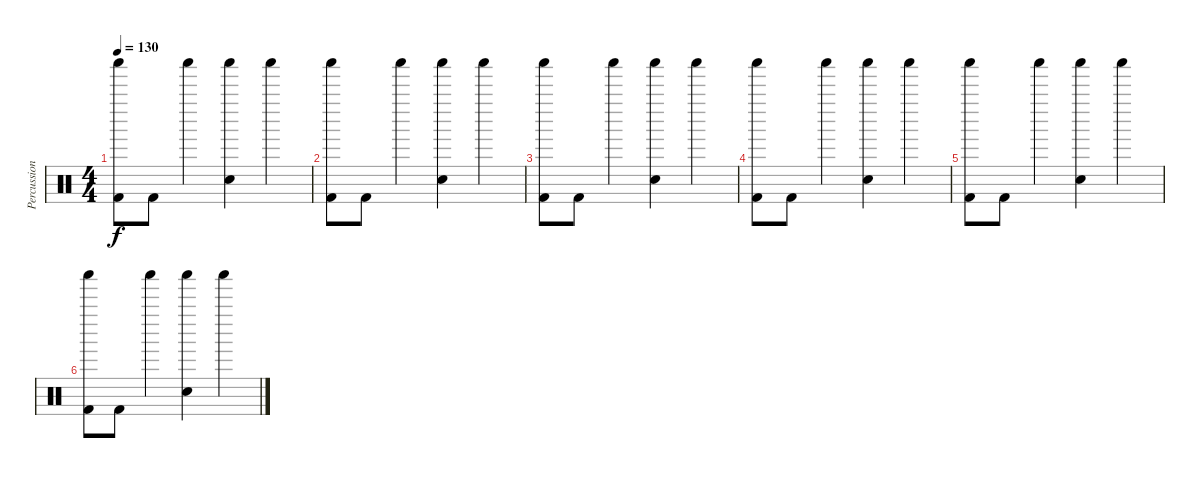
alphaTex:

\track ("Percussion" "Percussion") {instrument percussion}
\staff {score}
\articulation defaults
\ts (4 4)
\tempo 130
\clef neutral
\ks c
("Shaker (hit)" "Kick (hit) 2").8{dy f} "Kick (hit) 2".8 "Shaker (hit)".4 ("Shaker (hit)" "Snare (hit) 2").4 "Shaker (hit)".4 |
("Shaker (hit)" "Kick (hit) 2").8 "Kick (hit) 2".8 "Shaker (hit)".4 ("Shaker (hit)" "Snare (hit) 2").4 "Shaker (hit)".4 |
("Shaker (hit)" "Kick (hit) 2").8 "Kick (hit) 2".8 "Shaker (hit)".4 ("Shaker (hit)" "Snare (hit) 2").4 "Shaker (hit)".4 |
("Shaker (hit)" "Kick (hit) 2").8 "Kick (hit) 2".8 "Shaker (hit)".4 ("Shaker (hit)" "Snare (hit) 2").4 "Shaker (hit)".4 |
("Shaker (hit)" "Kick (hit) 2").8 "Kick (hit) 2".8 "Shaker (hit)".4 ("Shaker (hit)" "Snare (hit) 2").4 "Shaker (hit)".4 |
("Shaker (hit)" "Kick (hit) 2").8 "Kick (hit) 2".8 "Shaker (hit)".4 ("Shaker (hit)" "Snare (hit) 2").4 "Shaker (hit)".4
